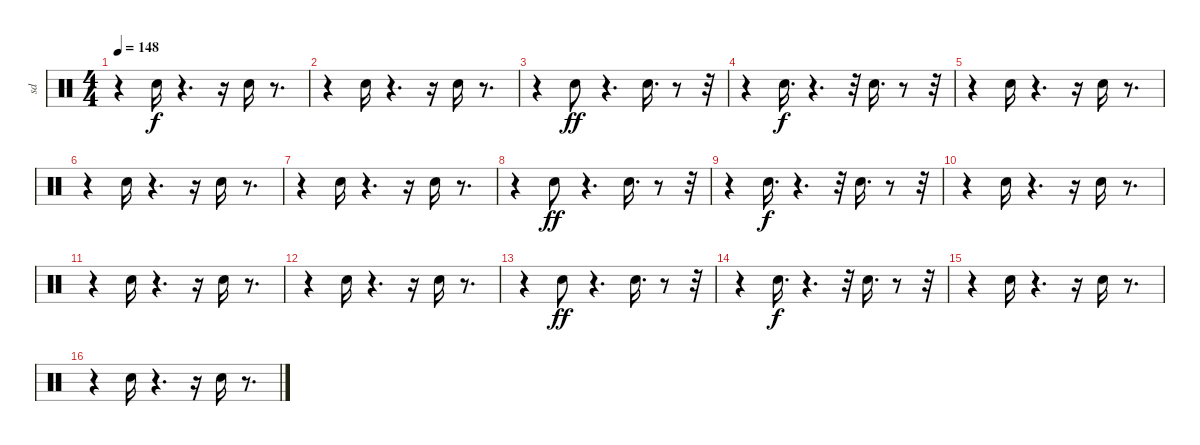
\track ("sd                  " "sd        ") {instrument percussion}
\staff {score}
\articulation defaults
\ts (4 4)
\tempo 148
\clef neutral
\ks c
r.4{dy f} "Snare (hit) 2".16 r.4{d} r.16 "Snare (hit) 2".16 r.8{d} |
r.4 "Snare (hit) 2".16 r.4{d} r.16 "Snare (hit) 2".16 r.8{d} |
r.4 "Snare (hit) 2".8{dy ff} r.4{d} "Snare (hit) 2".16{d} r.8 r.32 |
r.4 "Snare (hit) 2".16{d dy f} r.4{d} r.32 "Snare (hit) 2".16{d} r.8 r.32 |
r.4 "Snare (hit) 2".16 r.4{d} r.16 "Snare (hit) 2".16 r.8{d} |
r.4 "Snare (hit) 2".16 r.4{d} r.16 "Snare (hit) 2".16 r.8{d} |
r.4 "Snare (hit) 2".16 r.4{d} r.16 "Snare (hit) 2".16 r.8{d} |
r.4 "Snare (hit) 2".8{dy ff} r.4{d} "Snare (hit) 2".16{d} r.8 r.32 |
r.4 "Snare (hit) 2".16{d dy f} r.4{d} r.32 "Snare (hit) 2".16{d} r.8 r.32 |
r.4 "Snare (hit) 2".16 r.4{d} r.16 "Snare (hit) 2".16 r.8{d} |
r.4 "Snare (hit) 2".16 r.4{d} r.16 "Snare (hit) 2".16 r.8{d} |
r.4 "Snare (hit) 2".16 r.4{d} r.16 "Snare (hit) 2".16 r.8{d} |
r.4 "Snare (hit) 2".8{dy ff} r.4{d} "Snare (hit) 2".16{d} r.8 r.32 |
r.4 "Snare (hit) 2".16{d dy f} r.4{d} r.32 "Snare (hit) 2".16{d} r.8 r.32 |
r.4 "Snare (hit) 2".16 r.4{d} r.16 "Snare (hit) 2".16 r.8{d} |
r.4 "Snare (hit) 2".16 r.4{d} r.16 "Snare (hit) 2".16 r.8{d}
